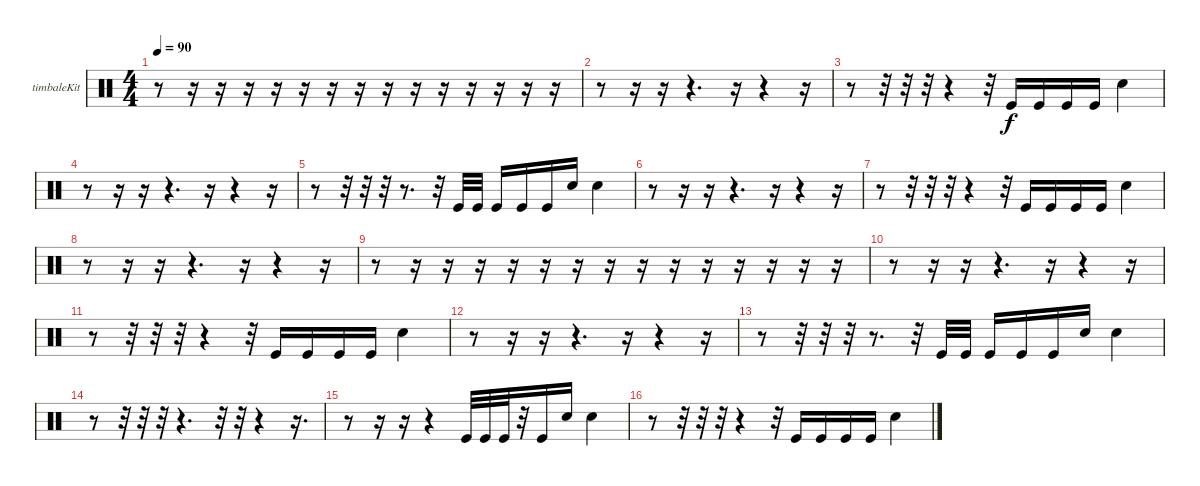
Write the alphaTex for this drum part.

\defaultSystemsLayout 4
\bracketExtendMode groupsimilarinstruments
\firstSystemTrackNameOrientation horizontal
\otherSystemsTrackNameOrientation horizontal
\track ("Timbale" "timbaleKit") {instrument percussion}
\staff {score}
\articulation defaults
\ts (4 4)
\tempo 90
\clef neutral
\scale
0.333333
\ks c
r.8{dy f} r.16 r.16 r.16 r.16 r.16 r.16 r.16 r.16 r.16 r.16 r.16 r.16 r.16 r.16 |
\scale
0.333333 r.8 r.16 r.16 r.4{d} r.16 r.4 r.16 |
\scale
0.333333 r.8 r.32 r.32 r.32 r.4 r.32 "Kick (hit)".16 "Kick (hit)".16 "Kick (hit)".16 "Kick (hit)".16 "Snare (hit) 2".4 |
\scale
0.333333 r.8 r.16 r.16 r.4{d} r.16 r.4 r.16 |
\scale
0.333333 r.8 r.32 r.32 r.32 r.8{d} r.32 "Kick (hit)".32 "Kick (hit)".32 "Kick (hit)".16 "Kick (hit)".16 "Kick (hit)".16 "Snare (hit) 2".16 "Snare (hit) 2".4 |
\scale
0.333333 r.8 r.16 r.16 r.4{d} r.16 r.4 r.16 |
\scale
0.333333 r.8 r.32 r.32 r.32 r.4 r.32 "Kick (hit)".16 "Kick (hit)".16 "Kick (hit)".16 "Kick (hit)".16 "Snare (hit) 2".4 |
\scale
0.333333 r.8 r.16 r.16 r.4{d} r.16 r.4 r.16 |
\scale
0.333333 r.8 r.16 r.16 r.16 r.16 r.16 r.16 r.16 r.16 r.16 r.16 r.16 r.16 r.16 r.16 |
\scale
0.333333 r.8 r.16 r.16 r.4{d} r.16 r.4 r.16 |
\scale
0.333333 r.8 r.32 r.32 r.32 r.4 r.32 "Kick (hit)".16 "Kick (hit)".16 "Kick (hit)".16 "Kick (hit)".16 "Snare (hit) 2".4 |
\scale
0.333333 r.8 r.16 r.16 r.4{d} r.16 r.4 r.16 |
\scale
0.333333 r.8 r.32 r.32 r.32 r.8{d} r.32 "Kick (hit)".32 "Kick (hit)".32 "Kick (hit)".16 "Kick (hit)".16 "Kick (hit)".16 "Snare (hit) 2".16 "Snare (hit) 2".4 |
\scale
0.333333 r.8 r.32 r.32 r.32 r.4{d} r.32 r.32 r.4 r.16{d} |
\scale
0.333333 r.8 r.16 r.16 r.4 "Kick (hit)".32 "Kick (hit)".32 "Kick (hit)".32 r.32 "Kick (hit)".16 "Snare (hit) 2".16 "Snare (hit) 2".4 |
\scale
0.333333 r.8 r.32 r.32 r.32 r.4 r.32 "Kick (hit)".16 "Kick (hit)".16 "Kick (hit)".16 "Kick (hit)".16 "Snare (hit) 2".4
